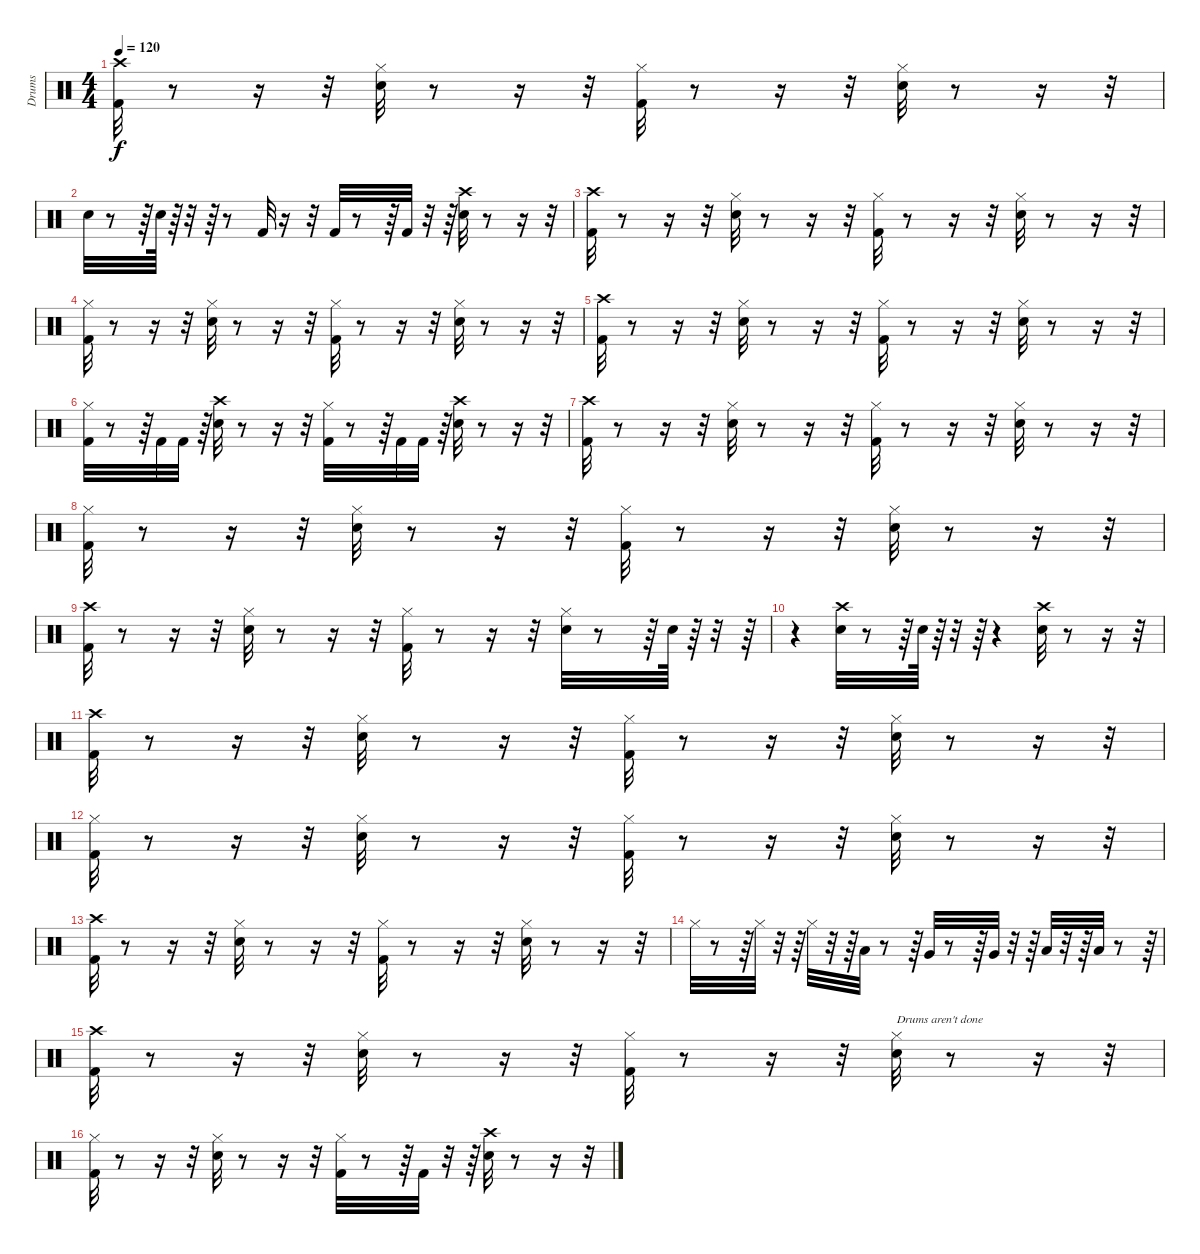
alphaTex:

\track ("Drums" "Drums") {instrument percussion}
\staff {score}
\articulation defaults
\ts (4 4)
\tempo 120
\clef neutral
\ks c
("Kick (hit) 2" "Crash high (hit)").32{dy f} r.8 r.16 r.32 ("Hi-Hat (closed)" "Electric Snare (hit)").32 r.8 r.16 r.32 ("Hi-Hat (closed)" "Kick (hit) 2").32 r.8 r.16 r.32 ("Hi-Hat (closed)" "Electric Snare (hit)").32 r.8 r.16 r.32 |
"Electric Snare (hit)".32 r.8 r.64 "Electric Snare (hit)".64 r.64 r.32 r.64 r.8 "Kick (hit) 2".32 r.16 r.32 "Kick (hit) 2".32 r.8 r.64 "Kick (hit) 2".32 r.32 r.64 ("Crash high (hit)" "Electric Snare (hit)").32 r.8 r.16 r.32 |
("Kick (hit) 2" "Crash high (hit)").32 r.8 r.16 r.32 ("Hi-Hat (closed)" "Electric Snare (hit)").32 r.8 r.16 r.32 ("Hi-Hat (closed)" "Kick (hit) 2").32 r.8 r.16 r.32 ("Hi-Hat (closed)" "Electric Snare (hit)").32 r.8 r.16 r.32 |
("Kick (hit) 2" "Hi-Hat (closed)").32 r.8 r.16 r.32 ("Electric Snare (hit)" "Hi-Hat (closed)").32 r.8 r.16 r.32 ("Kick (hit) 2" "Hi-Hat (closed)").32 r.8 r.16 r.32 ("Electric Snare (hit)" "Hi-Hat (closed)").32 r.8 r.16 r.32 |
("Kick (hit) 2" "Crash high (hit)").32 r.8 r.16 r.32 ("Hi-Hat (closed)" "Electric Snare (hit)").32 r.8 r.16 r.32 ("Hi-Hat (closed)" "Kick (hit) 2").32 r.8 r.16 r.32 ("Hi-Hat (closed)" "Electric Snare (hit)").32 r.8 r.16 r.32 |
("Kick (hit) 2" "Hi-Hat (closed)").32 r.8 r.64 "Kick (hit) 2".32 "Kick (hit) 2".32 r.64 ("Electric Snare (hit)" "Crash high (hit)").32 r.8 r.16 r.32 ("Hi-Hat (closed)" "Kick (hit) 2").32 r.8 r.64 "Kick (hit) 2".32 "Kick (hit) 2".32 r.64 ("Crash high (hit)" "Electric Snare (hit)").32 r.8 r.16 r.32 |
("Kick (hit) 2" "Crash high (hit)").32 r.8 r.16 r.32 ("Hi-Hat (closed)" "Electric Snare (hit)").32 r.8 r.16 r.32 ("Hi-Hat (closed)" "Kick (hit) 2").32 r.8 r.16 r.32 ("Hi-Hat (closed)" "Electric Snare (hit)").32 r.8 r.16 r.32 |
("Kick (hit) 2" "Hi-Hat (closed)").32 r.8 r.16 r.32 ("Electric Snare (hit)" "Hi-Hat (closed)").32 r.8 r.16 r.32 ("Kick (hit) 2" "Hi-Hat (closed)").32 r.8 r.16 r.32 ("Electric Snare (hit)" "Hi-Hat (closed)").32 r.8 r.16 r.32 |
("Crash high (hit)" "Kick (hit) 2").32 r.8 r.16 r.32 ("Hi-Hat (closed)" "Electric Snare (hit)").32 r.8 r.16 r.32 ("Kick (hit) 2" "Hi-Hat (closed)").32 r.8 r.16 r.32 ("Hi-Hat (closed)" "Electric Snare (hit)").32 r.8 r.64 "Electric Snare (hit)".64 r.64 r.32 r.64 |
r.4 ("Crash high (hit)" "Electric Snare (hit)").32 r.8 r.64 "Electric Snare (hit)".64 r.64 r.32 r.64 r.4 ("Crash high (hit)" "Electric Snare (hit)").32 r.8 r.16 r.32 |
("Kick (hit) 2" "Crash high (hit)").32 r.8 r.16 r.32 ("Electric Snare (hit)" "Hi-Hat (closed)").32 r.8 r.16 r.32 ("Kick (hit) 2" "Hi-Hat (closed)").32 r.8 r.16 r.32 ("Electric Snare (hit)" "Hi-Hat (closed)").32 r.8 r.16 r.32 |
("Kick (hit) 2" "Hi-Hat (closed)").32 r.8 r.16 r.32 ("Electric Snare (hit)" "Hi-Hat (closed)").32 r.8 r.16 r.32 ("Kick (hit) 2" "Hi-Hat (closed)").32 r.8 r.16 r.32 ("Electric Snare (hit)" "Hi-Hat (closed)").32 r.8 r.16 r.32 |
("Kick (hit) 2" "Crash high (hit)").32 r.8 r.16 r.32 ("Hi-Hat (closed)" "Electric Snare (hit)").32 r.8 r.16 r.32 ("Hi-Hat (closed)" "Kick (hit) 2").32 r.8 r.16 r.32 ("Hi-Hat (closed)" "Electric Snare (hit)").32 r.8 r.16 r.32 |
"Hi-Hat (closed)".32 r.8 r.64 "Hi-Hat (closed)".32 r.32 r.64 "Hi-Hat (closed)".32 r.32 r.64 "Low Floor Tom (hit)".32 r.8 r.64 "Very Low Tom (hit)".32 r.8 r.64 "Very Low Tom (hit)".32 r.32 r.64 "Low Tom (hit)".32 r.32 r.64 "Low Tom (hit)".32 r.8 r.64 |
("Kick (hit) 2" "Crash high (hit)").32 r.8 r.16 r.32 ("Electric Snare (hit)" "Hi-Hat (closed)").32 r.8 r.16 r.32 ("Kick (hit) 2" "Hi-Hat (closed)").32 r.8 r.16 r.32 ("Electric Snare (hit)" "Hi-Hat (closed)").32{txt "Drums aren't done"} r.8 r.16 r.32 |
("Hi-Hat (closed)" "Kick (hit) 2").32 r.8 r.16 r.32 ("Snare (hit) 2" "Hi-Hat (closed)").32 r.8 r.16 r.32 ("Kick (hit) 2" "Hi-Hat (closed)").32 r.8 r.64 "Kick (hit) 2".32 r.32 r.64 ("Snare (hit) 2" "Crash high (hit)").32 r.8 r.16 r.32
